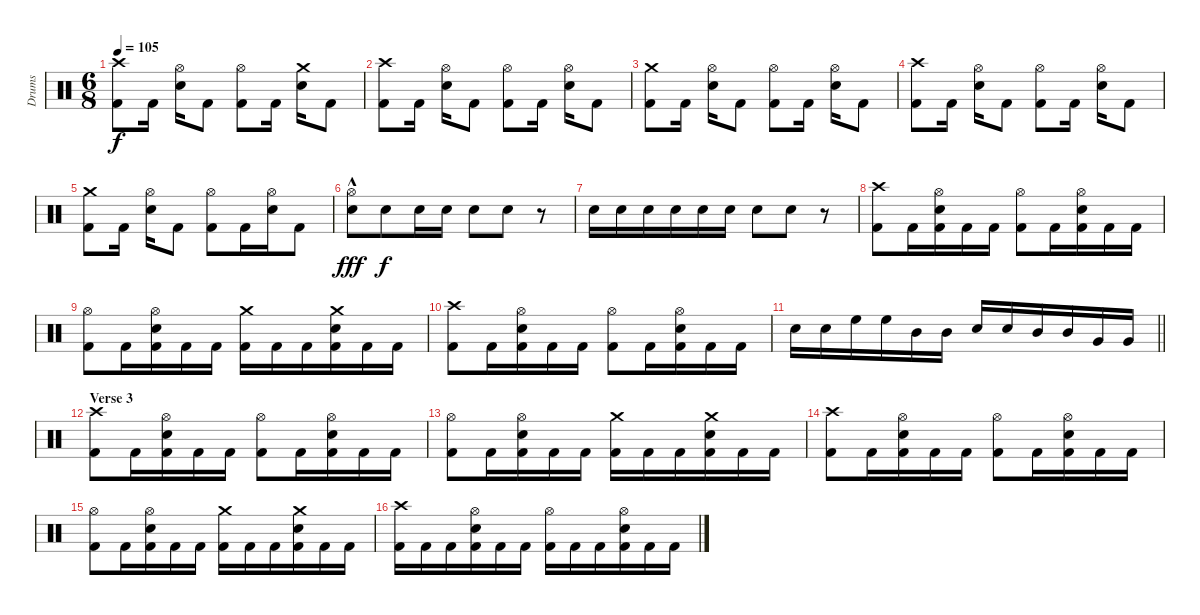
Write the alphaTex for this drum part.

\track ("Drums" "Drums") {instrument percussion}
\staff {score}
\articulation defaults
\ts (6 8)
\tempo 105
\clef neutral
\ks c
("Crash high (hit)" "Kick (hit) 2").8{dy f} "Kick (hit) 2".16{beam split} ("Hi-Hat (open)" "Electric Snare (hit)").16 "Kick (hit) 2".8 ("Hi-Hat (open)" "Kick (hit) 2").8 "Kick (hit) 2".16{beam split} ("Crash medium (hit)" "Electric Snare (hit)").16 "Kick (hit) 2".8 |
("Crash high (hit)" "Kick (hit) 2").8 "Kick (hit) 2".16{beam split} ("Hi-Hat (open)" "Electric Snare (hit)").16 "Kick (hit) 2".8 ("Hi-Hat (open)" "Kick (hit) 2").8 "Kick (hit) 2".16{beam split} ("Hi-Hat (open)" "Electric Snare (hit)").16 "Kick (hit) 2".8 |
("Crash medium (hit)" "Kick (hit) 2").8 "Kick (hit) 2".16{beam split} ("Hi-Hat (open)" "Electric Snare (hit)").16 "Kick (hit) 2".8 ("Hi-Hat (open)" "Kick (hit) 2").8 "Kick (hit) 2".16{beam split} ("Hi-Hat (open)" "Electric Snare (hit)").16 "Kick (hit) 2".8 |
("Crash high (hit)" "Kick (hit) 2").8 "Kick (hit) 2".16{beam split} ("Hi-Hat (open)" "Electric Snare (hit)").16 "Kick (hit) 2".8 ("Hi-Hat (open)" "Kick (hit) 2").8 "Kick (hit) 2".16{beam split} ("Hi-Hat (open)" "Electric Snare (hit)").16 "Kick (hit) 2".8 |
("Crash medium (hit)" "Kick (hit) 2").8 "Kick (hit) 2".16{beam split} ("Hi-Hat (open)" "Electric Snare (hit)").16 "Kick (hit) 2".8 ("Hi-Hat (open)" "Kick (hit) 2").8 "Kick (hit) 2".16 ("Hi-Hat (open)" "Electric Snare (hit)").16 "Kick (hit) 2".8 |
("Hi-Hat (open)"{hac} "Electric Snare (hit)").8{dy fff} "Electric Snare (hit)".8{dy f} "Electric Snare (hit)".16 "Electric Snare (hit)".16 "Electric Snare (hit)".8 "Electric Snare (hit)".8 r.8 |
"Electric Snare (hit)".16 "Electric Snare (hit)".16 "Electric Snare (hit)".16 "Electric Snare (hit)".16 "Electric Snare (hit)".16 "Electric Snare (hit)".16 "Electric Snare (hit)".8 "Electric Snare (hit)".8 r.8 |
("Crash high (hit)" "Kick (hit) 2").8 "Kick (hit) 2".16 ("Hi-Hat (open)" "Electric Snare (hit)" "Kick (hit) 2").16 "Kick (hit) 2".16 "Kick (hit) 2".16 ("Hi-Hat (open)" "Kick (hit) 2").8 "Kick (hit) 2".16 ("Hi-Hat (open)" "Electric Snare (hit)" "Kick (hit) 2").16 "Kick (hit) 2".16 "Kick (hit) 2".16 |
("Hi-Hat (open)" "Kick (hit) 2").8 "Kick (hit) 2".16 ("Hi-Hat (open)" "Electric Snare (hit)" "Kick (hit) 2").16 "Kick (hit) 2".16 "Kick (hit) 2".16 ("Crash medium (hit)" "Kick (hit) 2").16 "Kick (hit) 2".16 "Kick (hit) 2".16 ("Crash medium (hit)" "Electric Snare (hit)" "Kick (hit) 2").16 "Kick (hit) 2".16 "Kick (hit) 2".16 |
("Crash high (hit)" "Kick (hit) 2").8 "Kick (hit) 2".16 ("Hi-Hat (open)" "Electric Snare (hit)" "Kick (hit) 2").16 "Kick (hit) 2".16 "Kick (hit) 2".16 ("Hi-Hat (open)" "Kick (hit) 2").8 "Kick (hit) 2".16 ("Hi-Hat (open)" "Electric Snare (hit)" "Kick (hit) 2").16 "Kick (hit) 2".16 "Kick (hit) 2".16 |
\barLineRight lightlight "Electric Snare (hit)".16 "Electric Snare (hit)".16 "High Floor Tom (hit)".16 "High Floor Tom (hit)".16 "Mid Tom (hit)".16 "Mid Tom (hit)".16 "Electric Snare (hit)".16 "Electric Snare (hit)".16 "Mid Tom (hit)".16 "Mid Tom (hit)".16 "Very Low Tom (hit)".16 "Very Low Tom (hit)".16
|
\section ("" "Verse 3")
("Crash high (hit)" "Kick (hit) 2").8 "Kick (hit) 2".16 ("Hi-Hat (open)" "Electric Snare (hit)" "Kick (hit) 2").16 "Kick (hit) 2".16 "Kick (hit) 2".16 ("Hi-Hat (open)" "Kick (hit) 2").8 "Kick (hit) 2".16 ("Hi-Hat (open)" "Electric Snare (hit)" "Kick (hit) 2").16 "Kick (hit) 2".16 "Kick (hit) 2".16 |
("Hi-Hat (open)" "Kick (hit) 2").8 "Kick (hit) 2".16 ("Hi-Hat (open)" "Electric Snare (hit)" "Kick (hit) 2").16 "Kick (hit) 2".16 "Kick (hit) 2".16 ("Crash medium (hit)" "Kick (hit) 2").16 "Kick (hit) 2".16 "Kick (hit) 2".16 ("Crash medium (hit)" "Electric Snare (hit)" "Kick (hit) 2").16 "Kick (hit) 2".16 "Kick (hit) 2".16 |
("Crash high (hit)" "Kick (hit) 2").8 "Kick (hit) 2".16 ("Hi-Hat (open)" "Electric Snare (hit)" "Kick (hit) 2").16 "Kick (hit) 2".16 "Kick (hit) 2".16 ("Hi-Hat (open)" "Kick (hit) 2").8 "Kick (hit) 2".16 ("Hi-Hat (open)" "Electric Snare (hit)" "Kick (hit) 2").16 "Kick (hit) 2".16 "Kick (hit) 2".16 |
("Hi-Hat (open)" "Kick (hit) 2").8 "Kick (hit) 2".16 ("Hi-Hat (open)" "Electric Snare (hit)" "Kick (hit) 2").16 "Kick (hit) 2".16 "Kick (hit) 2".16 ("Crash medium (hit)" "Kick (hit) 2").16 "Kick (hit) 2".16 "Kick (hit) 2".16 ("Crash medium (hit)" "Electric Snare (hit)" "Kick (hit) 2").16 "Kick (hit) 2".16 "Kick (hit) 2".16 |
("Crash high (hit)" "Kick (hit) 2").16 "Kick (hit) 2".16 "Kick (hit) 2".16 ("Hi-Hat (open)" "Electric Snare (hit)" "Kick (hit) 2").16 "Kick (hit) 2".16 "Kick (hit) 2".16 ("Hi-Hat (open)" "Kick (hit) 2").16 "Kick (hit) 2".16 "Kick (hit) 2".16 ("Hi-Hat (open)" "Electric Snare (hit)" "Kick (hit) 2").16 "Kick (hit) 2".16 "Kick (hit) 2".16
